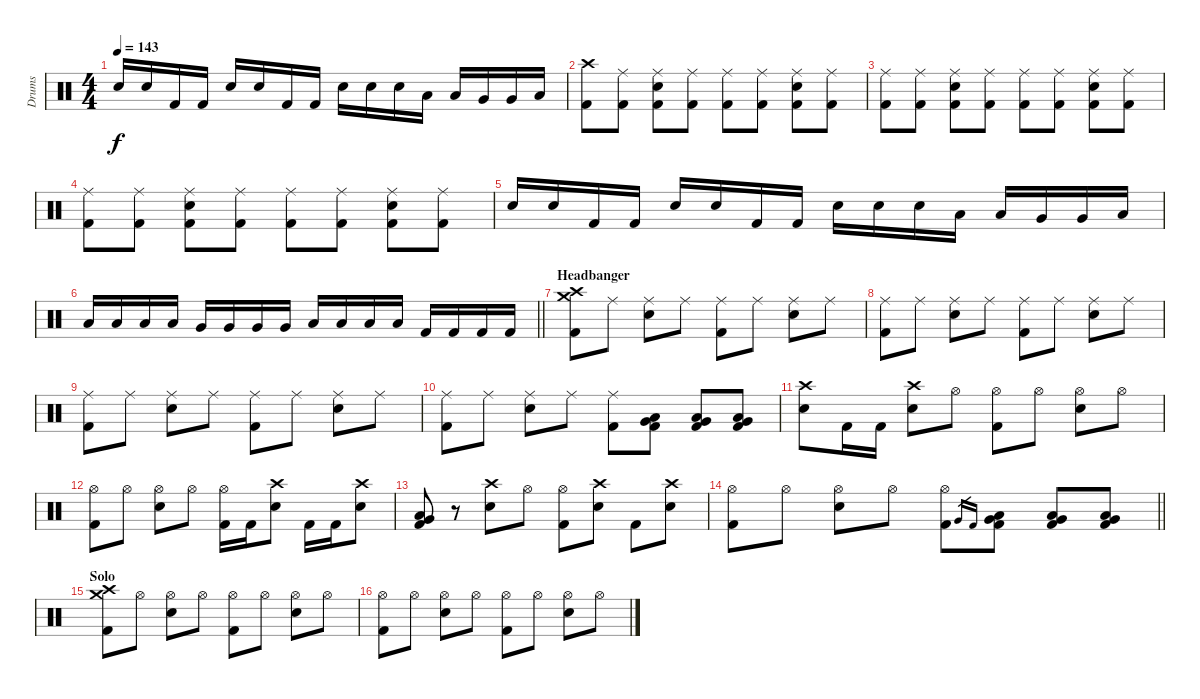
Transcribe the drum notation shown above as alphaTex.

\track ("Drums" "Drums") {instrument percussion}
\staff {score}
\articulation defaults
\ts (4 4)
\tempo 143
\clef neutral
\ks c "Snare (hit) 2".16{dy f} "Snare (hit) 2".16 "Kick (hit) 2".16 "Kick (hit) 2".16 "Snare (hit) 2".16 "Snare (hit) 2".16 "Kick (hit) 2".16 "Kick (hit) 2".16 "Snare (hit) 2".16 "Snare (hit) 2".16 "Snare (hit) 2".16 "Low Tom (hit)".16 "Low Tom (hit)".16 "Very Low Tom (hit)".16 "Very Low Tom (hit)".16 "Low Tom (hit)".16
|
("Crash high (hit)" "Kick (hit) 2").8 ("Ride (middle)" "Kick (hit) 2").8 ("Ride (middle)" "Snare (hit) 2" "Kick (hit) 2").8 ("Ride (middle)" "Kick (hit) 2").8 ("Ride (middle)" "Kick (hit) 2").8 ("Ride (middle)" "Kick (hit) 2").8 ("Ride (middle)" "Snare (hit) 2" "Kick (hit) 2").8 ("Ride (middle)" "Kick (hit) 2").8 |
("Ride (middle)" "Kick (hit) 2").8 ("Ride (middle)" "Kick (hit) 2").8 ("Ride (middle)" "Snare (hit) 2" "Kick (hit) 2").8 ("Ride (middle)" "Kick (hit) 2").8 ("Ride (middle)" "Kick (hit) 2").8 ("Ride (middle)" "Kick (hit) 2").8 ("Ride (middle)" "Snare (hit) 2" "Kick (hit) 2").8 ("Ride (middle)" "Kick (hit) 2").8 |
("Ride (middle)" "Kick (hit) 2").8 ("Ride (middle)" "Kick (hit) 2").8 ("Ride (middle)" "Snare (hit) 2" "Kick (hit) 2").8 ("Ride (middle)" "Kick (hit) 2").8 ("Ride (middle)" "Kick (hit) 2").8 ("Ride (middle)" "Kick (hit) 2").8 ("Ride (middle)" "Snare (hit) 2" "Kick (hit) 2").8 ("Ride (middle)" "Kick (hit) 2").8 |
"Snare (hit) 2".16 "Snare (hit) 2".16 "Kick (hit) 2".16 "Kick (hit) 2".16 "Snare (hit) 2".16 "Snare (hit) 2".16 "Kick (hit) 2".16 "Kick (hit) 2".16 "Snare (hit) 2".16 "Snare (hit) 2".16 "Snare (hit) 2".16 "Low Tom (hit)".16 "Low Tom (hit)".16 "Very Low Tom (hit)".16 "Very Low Tom (hit)".16 "Low Tom (hit)".16 |
\barLineRight lightlight "Low Tom (hit)".16 "Low Tom (hit)".16 "Low Tom (hit)".16 "Low Tom (hit)".16 "Very Low Tom (hit)".16 "Very Low Tom (hit)".16 "Very Low Tom (hit)".16 "Very Low Tom (hit)".16 "Low Floor Tom (hit)".16 "Low Floor Tom (hit)".16 "Low Floor Tom (hit)".16 "Low Floor Tom (hit)".16 "Kick (hit) 2".16 "Kick (hit) 2".16 "Kick (hit) 2".16 "Kick (hit) 2".16
|
\section ("" "Headbanger")
("Crash medium (hit)" "Crash high (hit)" "Kick (hit) 2").8 "Ride (middle)".8 ("Ride (middle)" "Snare (hit) 2").8 "Ride (middle)".8 ("Ride (middle)" "Kick (hit) 2").8 "Ride (middle)".8 ("Ride (middle)" "Snare (hit) 2").8 "Ride (middle)".8 |
("Ride (middle)" "Kick (hit) 2").8 "Ride (middle)".8 ("Ride (middle)" "Snare (hit) 2").8 "Ride (middle)".8 ("Ride (middle)" "Kick (hit) 2").8 "Ride (middle)".8 ("Ride (middle)" "Snare (hit) 2").8 "Ride (middle)".8 |
("Ride (middle)" "Kick (hit) 2").8 "Ride (middle)".8 ("Ride (middle)" "Snare (hit) 2").8 "Ride (middle)".8 ("Ride (middle)" "Kick (hit) 2").8 "Ride (middle)".8 ("Ride (middle)" "Snare (hit) 2").8 "Ride (middle)".8 |
("Ride (middle)" "Kick (hit) 2").8 "Ride (middle)".8 ("Ride (middle)" "Snare (hit) 2").8 "Ride (middle)".8 ("Ride (middle)" "Kick (hit) 2").8 ("Low Floor Tom (hit)" "Very Low Tom (hit)" "Kick (hit) 2").8 ("Low Floor Tom (hit)" "Very Low Tom (hit)" "Kick (hit) 2").8 ("Low Floor Tom (hit)" "Very Low Tom (hit)" "Kick (hit) 2").8 |
("Crash high (hit)" "Snare (hit) 2").8 "Kick (hit) 2".16 "Kick (hit) 2".16 ("Crash high (hit)" "Snare (hit) 2").8 "Hi-Hat (open)".8 ("Hi-Hat (open)" "Kick (hit) 2").8 "Hi-Hat (open)".8 ("Hi-Hat (open)" "Snare (hit) 2").8 "Hi-Hat (open)".8 |
("Hi-Hat (open)" "Kick (hit) 2").8 "Hi-Hat (open)".8 ("Hi-Hat (open)" "Snare (hit) 2").8 "Hi-Hat (open)".8 ("Hi-Hat (open)" "Kick (hit) 2").16 "Kick (hit) 2".16 ("Crash high (hit)" "Snare (hit) 2").8 "Kick (hit) 2".16 "Kick (hit) 2".16 ("Crash high (hit)" "Snare (hit) 2").8 |
("Low Tom (hit)" "Very Low Tom (hit)" "Kick (hit) 2").8 r.8 ("Crash high (hit)" "Snare (hit) 2").8 "Hi-Hat (open)".8 ("Hi-Hat (open)" "Kick (hit) 2").8 ("Crash high (hit)" "Snare (hit) 2").8 "Kick (hit) 2".8 ("Crash high (hit)" "Snare (hit) 2").8 |
\barLineRight lightlight
("Hi-Hat (open)" "Kick (hit) 2").8 "Hi-Hat (open)".8 ("Hi-Hat (open)" "Snare (hit) 2").8 "Hi-Hat (open)".8 ("Hi-Hat (open)" "Kick (hit) 2").8 "Very Low Tom (hit)".16{gr} "Kick (hit) 2".16{gr} ("Low Floor Tom (hit)" "Very Low Tom (hit)" "Kick (hit) 2").8 ("Low Floor Tom (hit)" "Very Low Tom (hit)" "Kick (hit) 2").8 ("Low Floor Tom (hit)" "Very Low Tom (hit)" "Kick (hit) 2").8 |
\section ("" "Solo")
("Crash medium (hit)" "Crash high (hit)" "Kick (hit) 2").8 "Hi-Hat (open)".8 ("Hi-Hat (open)" "Snare (hit) 2").8 "Hi-Hat (open)".8 ("Hi-Hat (open)" "Kick (hit) 2").8 "Hi-Hat (open)".8 ("Hi-Hat (open)" "Snare (hit) 2").8 "Hi-Hat (open)".8 |
("Hi-Hat (open)" "Kick (hit) 2").8 "Hi-Hat (open)".8 ("Hi-Hat (open)" "Snare (hit) 2").8 "Hi-Hat (open)".8 ("Hi-Hat (open)" "Kick (hit) 2").8 "Hi-Hat (open)".8 ("Hi-Hat (open)" "Snare (hit) 2").8 "Hi-Hat (open)".8
